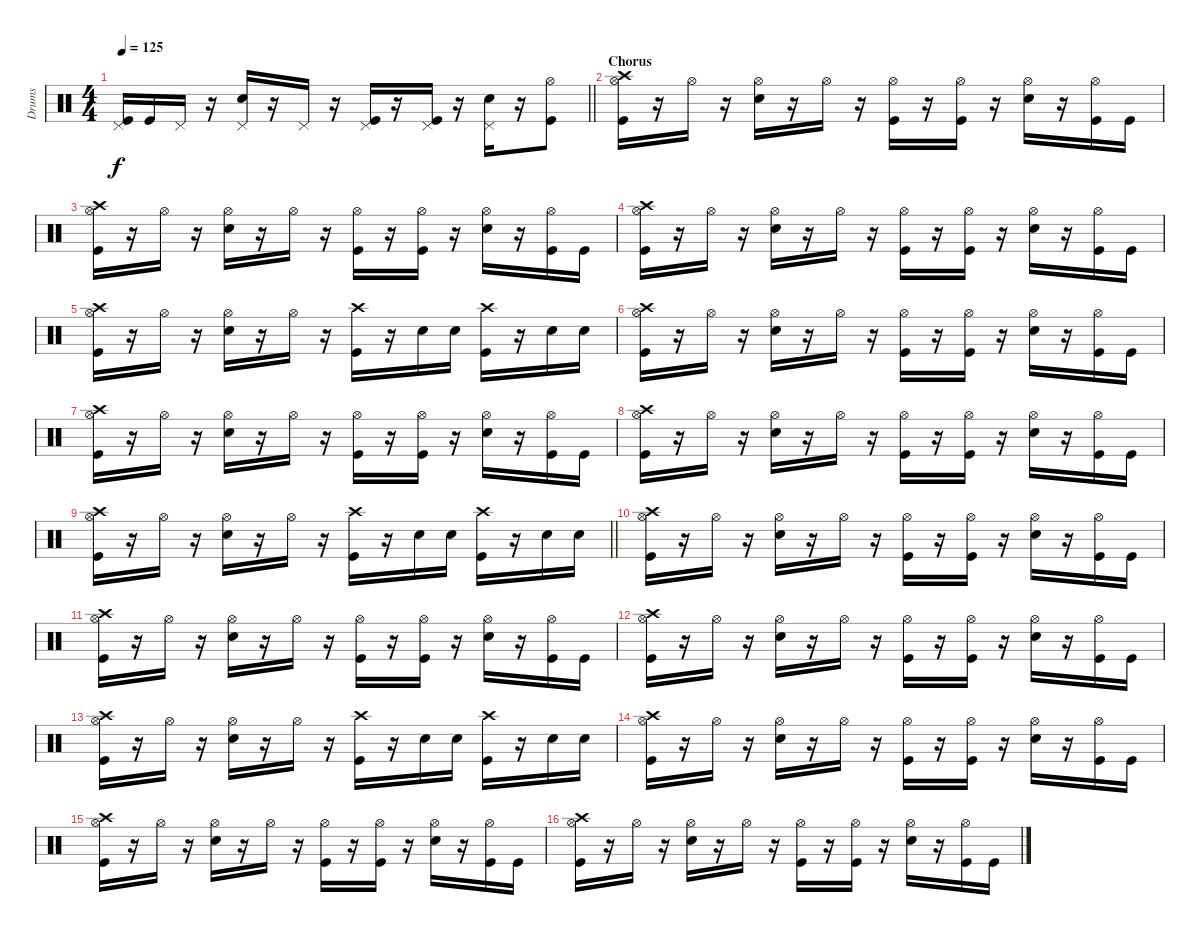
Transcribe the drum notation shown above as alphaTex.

\track ("Drums" "Drums") {instrument percussion}
\staff {score}
\articulation defaults
\ts (4 4)
\tempo 125
\clef neutral
\barLineRight lightlight
\ks c
("Pedal Hi-Hat (hit)" "Kick (hit)").16{dy f} "Kick (hit)".16 "Pedal Hi-Hat (hit)".16 r.16 ("Pedal Hi-Hat (hit)" "Snare (hit) 2").16 r.16 "Pedal Hi-Hat (hit)".16 r.16 ("Pedal Hi-Hat (hit)" "Kick (hit)").16 r.16 ("Pedal Hi-Hat (hit)" "Kick (hit)").16 r.16 ("Pedal Hi-Hat (hit)" "Snare (hit) 2").16 r.16 ("Hi-Hat (open)" "Kick (hit)").8 |
\section ("" "Chorus")
("Crash high (hit)" "Hi-Hat (open)" "Kick (hit)").16 r.16 "Hi-Hat (open)".16 r.16 ("Hi-Hat (open)" "Snare (hit) 2").16 r.16 "Hi-Hat (open)".16 r.16 ("Hi-Hat (open)" "Kick (hit)").16 r.16 ("Hi-Hat (open)" "Kick (hit)").16 r.16 ("Hi-Hat (open)" "Snare (hit) 2").16 r.16 ("Hi-Hat (open)" "Kick (hit)").16 "Kick (hit)".16 |
("Crash high (hit)" "Hi-Hat (open)" "Kick (hit)").16 r.16 "Hi-Hat (open)".16 r.16 ("Hi-Hat (open)" "Snare (hit) 2").16 r.16 "Hi-Hat (open)".16 r.16 ("Hi-Hat (open)" "Kick (hit)").16 r.16 ("Hi-Hat (open)" "Kick (hit)").16 r.16 ("Hi-Hat (open)" "Snare (hit) 2").16 r.16 ("Hi-Hat (open)" "Kick (hit)").16 "Kick (hit)".16 |
("Crash high (hit)" "Hi-Hat (open)" "Kick (hit)").16 r.16 "Hi-Hat (open)".16 r.16 ("Hi-Hat (open)" "Snare (hit) 2").16 r.16 "Hi-Hat (open)".16 r.16 ("Hi-Hat (open)" "Kick (hit)").16 r.16 ("Hi-Hat (open)" "Kick (hit)").16 r.16 ("Hi-Hat (open)" "Snare (hit) 2").16 r.16 ("Hi-Hat (open)" "Kick (hit)").16 "Kick (hit)".16 |
("Crash high (hit)" "Hi-Hat (open)" "Kick (hit)").16 r.16 "Hi-Hat (open)".16 r.16 ("Hi-Hat (open)" "Snare (hit) 2").16 r.16 "Hi-Hat (open)".16 r.16 ("Crash high (hit)" "Kick (hit)").16 r.16 "Snare (hit) 2".16 "Snare (hit) 2".16 ("Crash high (hit)" "Kick (hit)").16 r.16 "Snare (hit) 2".16 "Snare (hit) 2".16 |
("Crash high (hit)" "Hi-Hat (open)" "Kick (hit)").16 r.16 "Hi-Hat (open)".16 r.16 ("Hi-Hat (open)" "Snare (hit) 2").16 r.16 "Hi-Hat (open)".16 r.16 ("Hi-Hat (open)" "Kick (hit)").16 r.16 ("Hi-Hat (open)" "Kick (hit)").16 r.16 ("Hi-Hat (open)" "Snare (hit) 2").16 r.16 ("Hi-Hat (open)" "Kick (hit)").16 "Kick (hit)".16 |
("Crash high (hit)" "Hi-Hat (open)" "Kick (hit)").16 r.16 "Hi-Hat (open)".16 r.16 ("Hi-Hat (open)" "Snare (hit) 2").16 r.16 "Hi-Hat (open)".16 r.16 ("Hi-Hat (open)" "Kick (hit)").16 r.16 ("Hi-Hat (open)" "Kick (hit)").16 r.16 ("Hi-Hat (open)" "Snare (hit) 2").16 r.16 ("Hi-Hat (open)" "Kick (hit)").16 "Kick (hit)".16 |
("Crash high (hit)" "Hi-Hat (open)" "Kick (hit)").16 r.16 "Hi-Hat (open)".16 r.16 ("Hi-Hat (open)" "Snare (hit) 2").16 r.16 "Hi-Hat (open)".16 r.16 ("Hi-Hat (open)" "Kick (hit)").16 r.16 ("Hi-Hat (open)" "Kick (hit)").16 r.16 ("Hi-Hat (open)" "Snare (hit) 2").16 r.16 ("Hi-Hat (open)" "Kick (hit)").16 "Kick (hit)".16 |
\barLineRight lightlight
("Crash high (hit)" "Hi-Hat (open)" "Kick (hit)").16 r.16 "Hi-Hat (open)".16 r.16 ("Hi-Hat (open)" "Snare (hit) 2").16 r.16 "Hi-Hat (open)".16 r.16 ("Crash high (hit)" "Kick (hit)").16 r.16 "Snare (hit) 2".16 "Snare (hit) 2".16 ("Crash high (hit)" "Kick (hit)").16 r.16 "Snare (hit) 2".16 "Snare (hit) 2".16 |
("Crash high (hit)" "Hi-Hat (open)" "Kick (hit)").16 r.16 "Hi-Hat (open)".16 r.16 ("Hi-Hat (open)" "Snare (hit) 2").16 r.16 "Hi-Hat (open)".16 r.16 ("Hi-Hat (open)" "Kick (hit)").16 r.16 ("Hi-Hat (open)" "Kick (hit)").16 r.16 ("Hi-Hat (open)" "Snare (hit) 2").16 r.16 ("Hi-Hat (open)" "Kick (hit)").16 "Kick (hit)".16 |
("Crash high (hit)" "Hi-Hat (open)" "Kick (hit)").16 r.16 "Hi-Hat (open)".16 r.16 ("Hi-Hat (open)" "Snare (hit) 2").16 r.16 "Hi-Hat (open)".16 r.16 ("Hi-Hat (open)" "Kick (hit)").16 r.16 ("Hi-Hat (open)" "Kick (hit)").16 r.16 ("Hi-Hat (open)" "Snare (hit) 2").16 r.16 ("Hi-Hat (open)" "Kick (hit)").16 "Kick (hit)".16 |
("Crash high (hit)" "Hi-Hat (open)" "Kick (hit)").16 r.16 "Hi-Hat (open)".16 r.16 ("Hi-Hat (open)" "Snare (hit) 2").16 r.16 "Hi-Hat (open)".16 r.16 ("Hi-Hat (open)" "Kick (hit)").16 r.16 ("Hi-Hat (open)" "Kick (hit)").16 r.16 ("Hi-Hat (open)" "Snare (hit) 2").16 r.16 ("Hi-Hat (open)" "Kick (hit)").16 "Kick (hit)".16 |
("Crash high (hit)" "Hi-Hat (open)" "Kick (hit)").16 r.16 "Hi-Hat (open)".16 r.16 ("Hi-Hat (open)" "Snare (hit) 2").16 r.16 "Hi-Hat (open)".16 r.16 ("Crash high (hit)" "Kick (hit)").16 r.16 "Snare (hit) 2".16 "Snare (hit) 2".16 ("Crash high (hit)" "Kick (hit)").16 r.16 "Snare (hit) 2".16 "Snare (hit) 2".16 |
("Crash high (hit)" "Hi-Hat (open)" "Kick (hit)").16 r.16 "Hi-Hat (open)".16 r.16 ("Hi-Hat (open)" "Snare (hit) 2").16 r.16 "Hi-Hat (open)".16 r.16 ("Hi-Hat (open)" "Kick (hit)").16 r.16 ("Hi-Hat (open)" "Kick (hit)").16 r.16 ("Hi-Hat (open)" "Snare (hit) 2").16 r.16 ("Hi-Hat (open)" "Kick (hit)").16 "Kick (hit)".16 |
("Crash high (hit)" "Hi-Hat (open)" "Kick (hit)").16 r.16 "Hi-Hat (open)".16 r.16 ("Hi-Hat (open)" "Snare (hit) 2").16 r.16 "Hi-Hat (open)".16 r.16 ("Hi-Hat (open)" "Kick (hit)").16 r.16 ("Hi-Hat (open)" "Kick (hit)").16 r.16 ("Hi-Hat (open)" "Snare (hit) 2").16 r.16 ("Hi-Hat (open)" "Kick (hit)").16 "Kick (hit)".16 |
("Crash high (hit)" "Hi-Hat (open)" "Kick (hit)").16 r.16 "Hi-Hat (open)".16 r.16 ("Hi-Hat (open)" "Snare (hit) 2").16 r.16 "Hi-Hat (open)".16 r.16 ("Hi-Hat (open)" "Kick (hit)").16 r.16 ("Hi-Hat (open)" "Kick (hit)").16 r.16 ("Hi-Hat (open)" "Snare (hit) 2").16 r.16 ("Hi-Hat (open)" "Kick (hit)").16 "Kick (hit)".16
